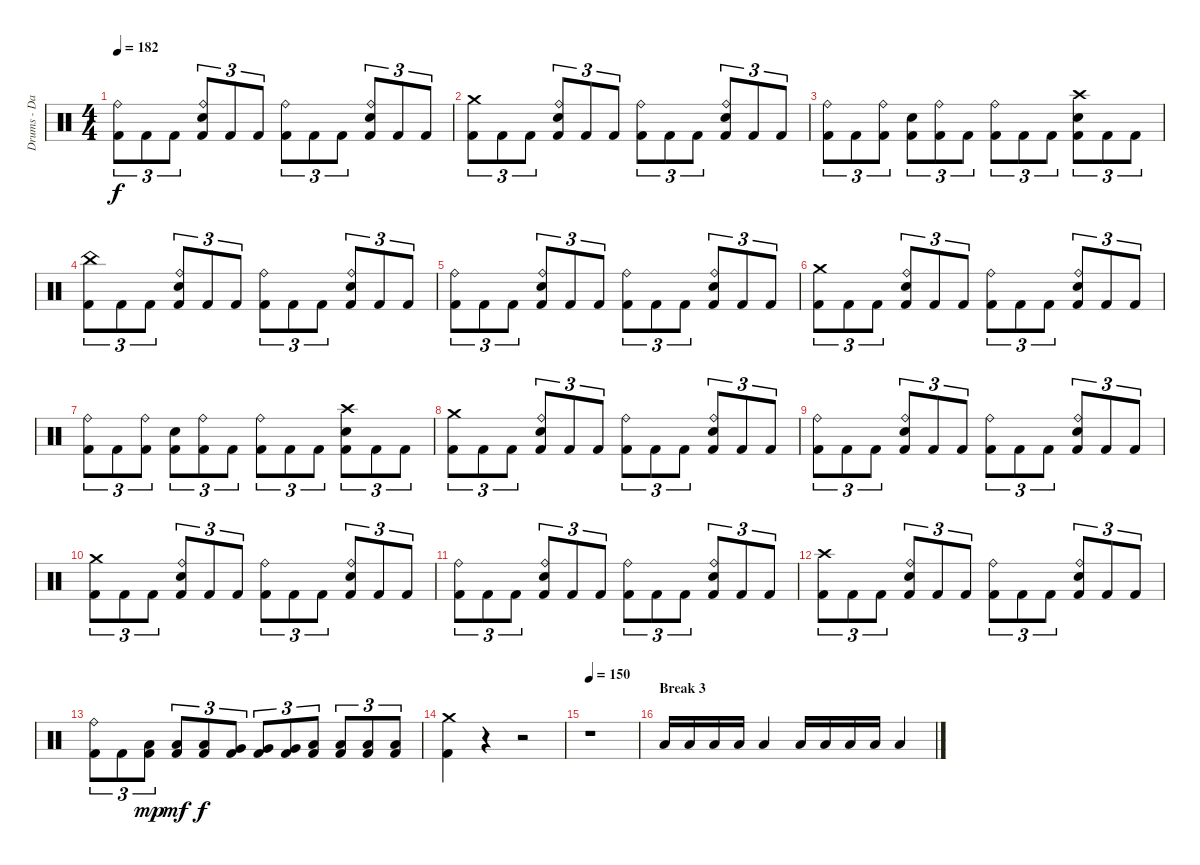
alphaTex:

\track ("Drums - Dan Zimmermann" "Drums - Da") {instrument percussion}
\staff {score}
\articulation defaults
\ts (4 4)
\tempo 182
\clef neutral
\ks c
("Kick (hit) 2" "Ride (bell)").8{tu (3 2) dy f} "Kick (hit) 2".8{tu (3 2)} "Kick (hit) 2".8{tu (3 2)} ("Kick (hit) 2" "Electric Snare (hit)" "Ride (bell)").8{tu (3 2)} "Kick (hit) 2".8{tu (3 2)} "Kick (hit) 2".8{tu (3 2)} ("Kick (hit) 2" "Ride (bell)").8{tu (3 2)} "Kick (hit) 2".8{tu (3 2)} "Kick (hit) 2".8{tu (3 2)} ("Kick (hit) 2" "Electric Snare (hit)" "Ride (bell)").8{tu (3 2)} "Kick (hit) 2".8{tu (3 2)} "Kick (hit) 2".8{tu (3 2)} |
("Kick (hit) 2" "Crash medium (hit)").8{tu (3 2)} "Kick (hit) 2".8{tu (3 2)} "Kick (hit) 2".8{tu (3 2)} ("Kick (hit) 2" "Electric Snare (hit)" "Ride (bell)").8{tu (3 2)} "Kick (hit) 2".8{tu (3 2)} "Kick (hit) 2".8{tu (3 2)} ("Kick (hit) 2" "Ride (bell)").8{tu (3 2)} "Kick (hit) 2".8{tu (3 2)} "Kick (hit) 2".8{tu (3 2)} ("Kick (hit) 2" "Electric Snare (hit)" "Ride (bell)").8{tu (3 2)} "Kick (hit) 2".8{tu (3 2)} "Kick (hit) 2".8{tu (3 2)} |
("Kick (hit) 2" "Ride (bell)").8{tu (3 2)} "Kick (hit) 2".8{tu (3 2)} ("Kick (hit) 2" "Ride (bell)").8{tu (3 2)} ("Kick (hit) 2" "Electric Snare (hit)").8{tu (3 2)} ("Kick (hit) 2" "Ride (bell)").8{tu (3 2)} "Kick (hit) 2".8{tu (3 2)} ("Kick (hit) 2" "Ride (bell)").8{tu (3 2)} "Kick (hit) 2".8{tu (3 2)} "Kick (hit) 2".8{tu (3 2)} ("Kick (hit) 2" "Electric Snare (hit)" "Crash high (hit)").8{tu (3 2)} "Kick (hit) 2".8{tu (3 2)} "Kick (hit) 2".8{tu (3 2)} |
("Kick (hit) 2" "China (hit)").8{tu (3 2)} "Kick (hit) 2".8{tu (3 2)} "Kick (hit) 2".8{tu (3 2)} ("Kick (hit) 2" "Electric Snare (hit)" "Ride (bell)").8{tu (3 2)} "Kick (hit) 2".8{tu (3 2)} "Kick (hit) 2".8{tu (3 2)} ("Kick (hit) 2" "Ride (bell)").8{tu (3 2)} "Kick (hit) 2".8{tu (3 2)} "Kick (hit) 2".8{tu (3 2)} ("Kick (hit) 2" "Electric Snare (hit)" "Ride (bell)").8{tu (3 2)} "Kick (hit) 2".8{tu (3 2)} "Kick (hit) 2".8{tu (3 2)} |
("Kick (hit) 2" "Ride (bell)").8{tu (3 2)} "Kick (hit) 2".8{tu (3 2)} "Kick (hit) 2".8{tu (3 2)} ("Kick (hit) 2" "Electric Snare (hit)" "Ride (bell)").8{tu (3 2)} "Kick (hit) 2".8{tu (3 2)} "Kick (hit) 2".8{tu (3 2)} ("Kick (hit) 2" "Ride (bell)").8{tu (3 2)} "Kick (hit) 2".8{tu (3 2)} "Kick (hit) 2".8{tu (3 2)} ("Kick (hit) 2" "Electric Snare (hit)" "Ride (bell)").8{tu (3 2)} "Kick (hit) 2".8{tu (3 2)} "Kick (hit) 2".8{tu (3 2)} |
("Kick (hit) 2" "Crash medium (hit)").8{tu (3 2)} "Kick (hit) 2".8{tu (3 2)} "Kick (hit) 2".8{tu (3 2)} ("Kick (hit) 2" "Electric Snare (hit)" "Ride (bell)").8{tu (3 2)} "Kick (hit) 2".8{tu (3 2)} "Kick (hit) 2".8{tu (3 2)} ("Kick (hit) 2" "Ride (bell)").8{tu (3 2)} "Kick (hit) 2".8{tu (3 2)} "Kick (hit) 2".8{tu (3 2)} ("Kick (hit) 2" "Electric Snare (hit)" "Ride (bell)").8{tu (3 2)} "Kick (hit) 2".8{tu (3 2)} "Kick (hit) 2".8{tu (3 2)} |
("Kick (hit) 2" "Ride (bell)").8{tu (3 2)} "Kick (hit) 2".8{tu (3 2)} ("Kick (hit) 2" "Ride (bell)").8{tu (3 2)} ("Kick (hit) 2" "Electric Snare (hit)").8{tu (3 2)} ("Kick (hit) 2" "Ride (bell)").8{tu (3 2)} "Kick (hit) 2".8{tu (3 2)} ("Kick (hit) 2" "Ride (bell)").8{tu (3 2)} "Kick (hit) 2".8{tu (3 2)} "Kick (hit) 2".8{tu (3 2)} ("Kick (hit) 2" "Electric Snare (hit)" "Crash high (hit)").8{tu (3 2)} "Kick (hit) 2".8{tu (3 2)} "Kick (hit) 2".8{tu (3 2)} |
("Kick (hit) 2" "Crash medium (hit)").8{tu (3 2)} "Kick (hit) 2".8{tu (3 2)} "Kick (hit) 2".8{tu (3 2)} ("Kick (hit) 2" "Electric Snare (hit)" "Ride (bell)").8{tu (3 2)} "Kick (hit) 2".8{tu (3 2)} "Kick (hit) 2".8{tu (3 2)} ("Kick (hit) 2" "Ride (bell)").8{tu (3 2)} "Kick (hit) 2".8{tu (3 2)} "Kick (hit) 2".8{tu (3 2)} ("Kick (hit) 2" "Electric Snare (hit)" "Ride (bell)").8{tu (3 2)} "Kick (hit) 2".8{tu (3 2)} "Kick (hit) 2".8{tu (3 2)} |
("Kick (hit) 2" "Ride (bell)").8{tu (3 2)} "Kick (hit) 2".8{tu (3 2)} "Kick (hit) 2".8{tu (3 2)} ("Kick (hit) 2" "Electric Snare (hit)" "Ride (bell)").8{tu (3 2)} "Kick (hit) 2".8{tu (3 2)} "Kick (hit) 2".8{tu (3 2)} ("Kick (hit) 2" "Ride (bell)").8{tu (3 2)} "Kick (hit) 2".8{tu (3 2)} "Kick (hit) 2".8{tu (3 2)} ("Kick (hit) 2" "Electric Snare (hit)" "Ride (bell)").8{tu (3 2)} "Kick (hit) 2".8{tu (3 2)} "Kick (hit) 2".8{tu (3 2)} |
("Kick (hit) 2" "Crash medium (hit)").8{tu (3 2)} "Kick (hit) 2".8{tu (3 2)} "Kick (hit) 2".8{tu (3 2)} ("Kick (hit) 2" "Electric Snare (hit)" "Ride (bell)").8{tu (3 2)} "Kick (hit) 2".8{tu (3 2)} "Kick (hit) 2".8{tu (3 2)} ("Kick (hit) 2" "Ride (bell)").8{tu (3 2)} "Kick (hit) 2".8{tu (3 2)} "Kick (hit) 2".8{tu (3 2)} ("Kick (hit) 2" "Electric Snare (hit)" "Ride (bell)").8{tu (3 2)} "Kick (hit) 2".8{tu (3 2)} "Kick (hit) 2".8{tu (3 2)} |
("Kick (hit) 2" "Ride (bell)").8{tu (3 2)} "Kick (hit) 2".8{tu (3 2)} "Kick (hit) 2".8{tu (3 2)} ("Kick (hit) 2" "Electric Snare (hit)" "Ride (bell)").8{tu (3 2)} "Kick (hit) 2".8{tu (3 2)} "Kick (hit) 2".8{tu (3 2)} ("Kick (hit) 2" "Ride (bell)").8{tu (3 2)} "Kick (hit) 2".8{tu (3 2)} "Kick (hit) 2".8{tu (3 2)} ("Kick (hit) 2" "Electric Snare (hit)" "Ride (bell)").8{tu (3 2)} "Kick (hit) 2".8{tu (3 2)} "Kick (hit) 2".8{tu (3 2)} |
("Kick (hit) 2" "Crash high (hit)").8{tu (3 2)} "Kick (hit) 2".8{tu (3 2)} "Kick (hit) 2".8{tu (3 2)} ("Kick (hit) 2" "Electric Snare (hit)" "Ride (bell)").8{tu (3 2)} "Kick (hit) 2".8{tu (3 2)} "Kick (hit) 2".8{tu (3 2)} ("Kick (hit) 2" "Ride (bell)").8{tu (3 2)} "Kick (hit) 2".8{tu (3 2)} "Kick (hit) 2".8{tu (3 2)} ("Kick (hit) 2" "Electric Snare (hit)" "Ride (bell)").8{tu (3 2)} "Kick (hit) 2".8{tu (3 2)} "Kick (hit) 2".8{tu (3 2)} |
("Kick (hit) 2" "Ride (bell)").8{tu (3 2)} "Kick (hit) 2".8{tu (3 2)} ("Kick (hit) 2" "Low Tom (hit)").8{tu (3 2) dy mp} ("Kick (hit) 2" "Low Tom (hit)").8{tu (3 2) dy mf} ("Kick (hit) 2" "Low Tom (hit)").8{tu (3 2) dy f} ("Kick (hit) 2" "Very Low Tom (hit)").8{tu (3 2)} ("Kick (hit) 2" "Very Low Tom (hit)").8{tu (3 2)} ("Kick (hit) 2" "Very Low Tom (hit)").8{tu (3 2)} ("Kick (hit) 2" "Low Floor Tom (hit)").8{tu (3 2)} ("Kick (hit) 2" "Low Floor Tom (hit)").8{tu (3 2)} ("Kick (hit) 2" "Low Floor Tom (hit)").8{tu (3 2)} ("Kick (hit) 2" "Low Floor Tom (hit)").8{tu (3 2)} |
("Kick (hit) 2" "Crash medium (hit)").4 r.4 r.2 |
\tempo 150
r.1 |
\section ("" "Break 3")
"Low Floor Tom (hit)".16 "Low Floor Tom (hit)".16 "Low Floor Tom (hit)".16 "Low Floor Tom (hit)".16 "Low Floor Tom (hit)".4 "Low Floor Tom (hit)".16 "Low Floor Tom (hit)".16 "Low Floor Tom (hit)".16 "Low Floor Tom (hit)".16 "Low Floor Tom (hit)".4
